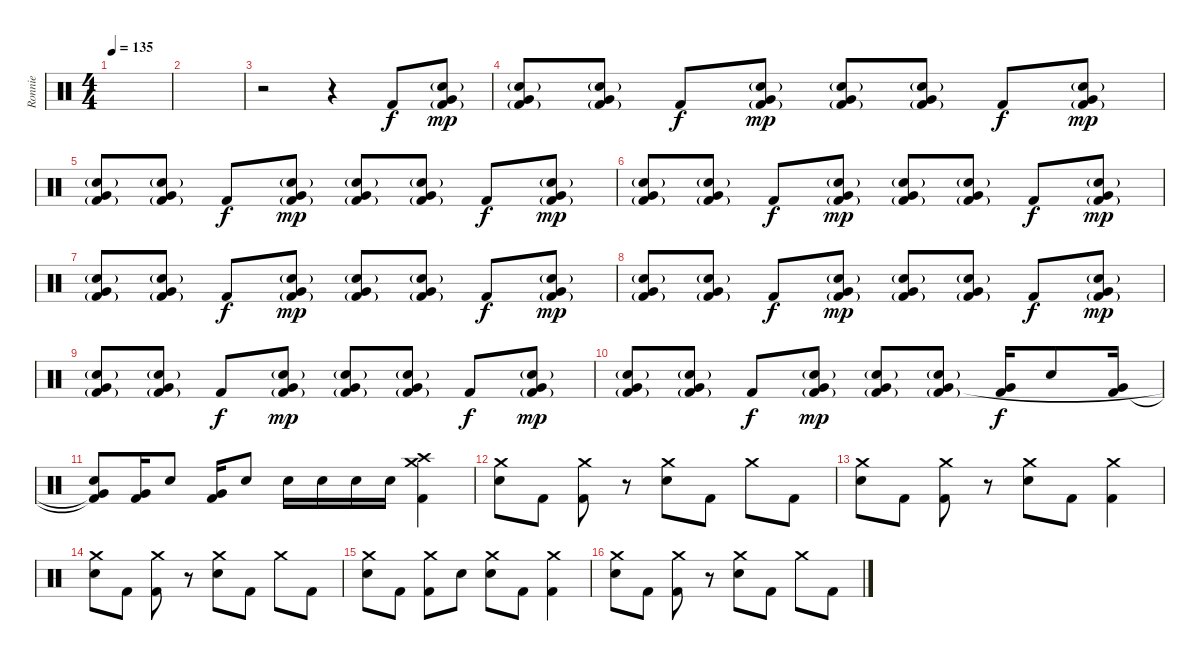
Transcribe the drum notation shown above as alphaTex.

\track ("Ronnie" "Ronnie") {instrument percussion}
\staff {score}
\articulation defaults
\ts (4 4)
\tempo 135
\clef neutral
\ks c
|
|
r.2 r.4 "Kick (hit) 2".8 ("Electric Snare (hit)"{g} "Kick (hit) 2"{g} "Very Low Tom (hit)").8{dy mp} |
("Electric Snare (hit)"{g} "Kick (hit) 2"{g} "Very Low Tom (hit)").8 ("Electric Snare (hit)"{g} "Kick (hit) 2"{g} "Very Low Tom (hit)").8 "Kick (hit) 2".8{dy f} ("Electric Snare (hit)"{g} "Kick (hit) 2"{g} "Very Low Tom (hit)").8{dy mp} ("Electric Snare (hit)"{g} "Kick (hit) 2"{g} "Very Low Tom (hit)").8 ("Electric Snare (hit)"{g} "Kick (hit) 2"{g} "Very Low Tom (hit)").8 "Kick (hit) 2".8{dy f} ("Electric Snare (hit)"{g} "Kick (hit) 2"{g} "Very Low Tom (hit)").8{dy mp} |
("Electric Snare (hit)"{g} "Kick (hit) 2"{g} "Very Low Tom (hit)").8 ("Electric Snare (hit)"{g} "Kick (hit) 2"{g} "Very Low Tom (hit)").8 "Kick (hit) 2".8{dy f} ("Electric Snare (hit)"{g} "Kick (hit) 2"{g} "Very Low Tom (hit)").8{dy mp} ("Electric Snare (hit)"{g} "Kick (hit) 2"{g} "Very Low Tom (hit)").8 ("Electric Snare (hit)"{g} "Kick (hit) 2"{g} "Very Low Tom (hit)").8 "Kick (hit) 2".8{dy f} ("Electric Snare (hit)"{g} "Kick (hit) 2"{g} "Very Low Tom (hit)").8{dy mp} |
("Electric Snare (hit)"{g} "Kick (hit) 2"{g} "Very Low Tom (hit)").8 ("Electric Snare (hit)"{g} "Kick (hit) 2"{g} "Very Low Tom (hit)").8 "Kick (hit) 2".8{dy f} ("Electric Snare (hit)"{g} "Kick (hit) 2"{g} "Very Low Tom (hit)").8{dy mp} ("Electric Snare (hit)"{g} "Kick (hit) 2"{g} "Very Low Tom (hit)").8 ("Electric Snare (hit)"{g} "Kick (hit) 2"{g} "Very Low Tom (hit)").8 "Kick (hit) 2".8{dy f} ("Electric Snare (hit)"{g} "Kick (hit) 2"{g} "Very Low Tom (hit)").8{dy mp} |
("Electric Snare (hit)"{g} "Kick (hit) 2"{g} "Very Low Tom (hit)").8 ("Electric Snare (hit)"{g} "Kick (hit) 2"{g} "Very Low Tom (hit)").8 "Kick (hit) 2".8{dy f} ("Electric Snare (hit)"{g} "Kick (hit) 2"{g} "Very Low Tom (hit)").8{dy mp} ("Electric Snare (hit)"{g} "Kick (hit) 2"{g} "Very Low Tom (hit)").8 ("Electric Snare (hit)"{g} "Kick (hit) 2"{g} "Very Low Tom (hit)").8 "Kick (hit) 2".8{dy f} ("Electric Snare (hit)"{g} "Kick (hit) 2"{g} "Very Low Tom (hit)").8{dy mp} |
("Electric Snare (hit)"{g} "Kick (hit) 2"{g} "Very Low Tom (hit)").8 ("Electric Snare (hit)"{g} "Kick (hit) 2"{g} "Very Low Tom (hit)").8 "Kick (hit) 2".8{dy f} ("Electric Snare (hit)"{g} "Kick (hit) 2"{g} "Very Low Tom (hit)").8{dy mp} ("Electric Snare (hit)"{g} "Kick (hit) 2"{g} "Very Low Tom (hit)").8 ("Electric Snare (hit)"{g} "Kick (hit) 2"{g} "Very Low Tom (hit)").8 "Kick (hit) 2".8{dy f} ("Electric Snare (hit)"{g} "Kick (hit) 2"{g} "Very Low Tom (hit)").8{dy mp} |
("Electric Snare (hit)"{g} "Kick (hit) 2"{g} "Very Low Tom (hit)").8 ("Electric Snare (hit)"{g} "Kick (hit) 2"{g} "Very Low Tom (hit)").8 "Kick (hit) 2".8{dy f} ("Electric Snare (hit)"{g} "Kick (hit) 2"{g} "Very Low Tom (hit)").8{dy mp} ("Electric Snare (hit)"{g} "Kick (hit) 2"{g} "Very Low Tom (hit)").8 ("Electric Snare (hit)"{g} "Kick (hit) 2"{g} "Very Low Tom (hit)").8 "Kick (hit) 2".8{dy f} ("Electric Snare (hit)"{g} "Kick (hit) 2"{g} "Very Low Tom (hit)").8{dy mp} |
("Electric Snare (hit)"{g} "Kick (hit) 2"{g} "Very Low Tom (hit)").8 ("Electric Snare (hit)"{g} "Kick (hit) 2"{g} "Very Low Tom (hit)").8 "Kick (hit) 2".8{dy f} ("Electric Snare (hit)"{g} "Kick (hit) 2"{g} "Very Low Tom (hit)").8{dy mp} ("Electric Snare (hit)"{g} "Kick (hit) 2"{g} "Very Low Tom (hit)").8 ("Electric Snare (hit)"{g} "Kick (hit) 2"{g} "Very Low Tom (hit)").8 ("Very Low Tom (hit)" "Kick (hit) 2").16{dy f} "Electric Snare (hit)".8 ("Very Low Tom (hit)" "Kick (hit) 2").16 |
("Electric Snare (hit)" "Kick (hit) 2"{t} "Very Low Tom (hit)"{t}).8 ("Kick (hit) 2" "Very Low Tom (hit)").16 "Electric Snare (hit)".8 ("Kick (hit) 2" "Very Low Tom (hit)").16 "Electric Snare (hit)".8 "Electric Snare (hit)".16 "Electric Snare (hit)".16 "Electric Snare (hit)".16 "Electric Snare (hit)".16 ("Crash high (hit)" "Crash medium (hit)" "Kick (hit) 2").4 |
("Crash medium (hit)" "Electric Snare (hit)").8 "Kick (hit) 2".8 ("Kick (hit) 2" "Crash medium (hit)").8 r.8 ("Crash medium (hit)" "Electric Snare (hit)").8 "Kick (hit) 2".8 "Crash medium (hit)".8 "Kick (hit) 2".8 |
("Crash medium (hit)" "Electric Snare (hit)").8 "Kick (hit) 2".8 ("Kick (hit) 2" "Crash medium (hit)").8 r.8 ("Crash medium (hit)" "Electric Snare (hit)").8 "Kick (hit) 2".8 ("Kick (hit) 2" "Crash medium (hit)").4 |
("Crash medium (hit)" "Electric Snare (hit)").8 "Kick (hit) 2".8 ("Kick (hit) 2" "Crash medium (hit)").8 r.8 ("Crash medium (hit)" "Electric Snare (hit)").8 "Kick (hit) 2".8 "Crash medium (hit)".8 "Kick (hit) 2".8 |
("Crash medium (hit)" "Electric Snare (hit)").8 "Kick (hit) 2".8 ("Kick (hit) 2" "Crash medium (hit)").8 "Electric Snare (hit)".8 ("Crash medium (hit)" "Electric Snare (hit)").8 "Kick (hit) 2".8 ("Kick (hit) 2" "Crash medium (hit)").4 |
("Crash medium (hit)" "Electric Snare (hit)").8 "Kick (hit) 2".8 ("Kick (hit) 2" "Crash medium (hit)").8 r.8 ("Crash medium (hit)" "Electric Snare (hit)").8 "Kick (hit) 2".8 "Crash medium (hit)".8 "Kick (hit) 2".8
